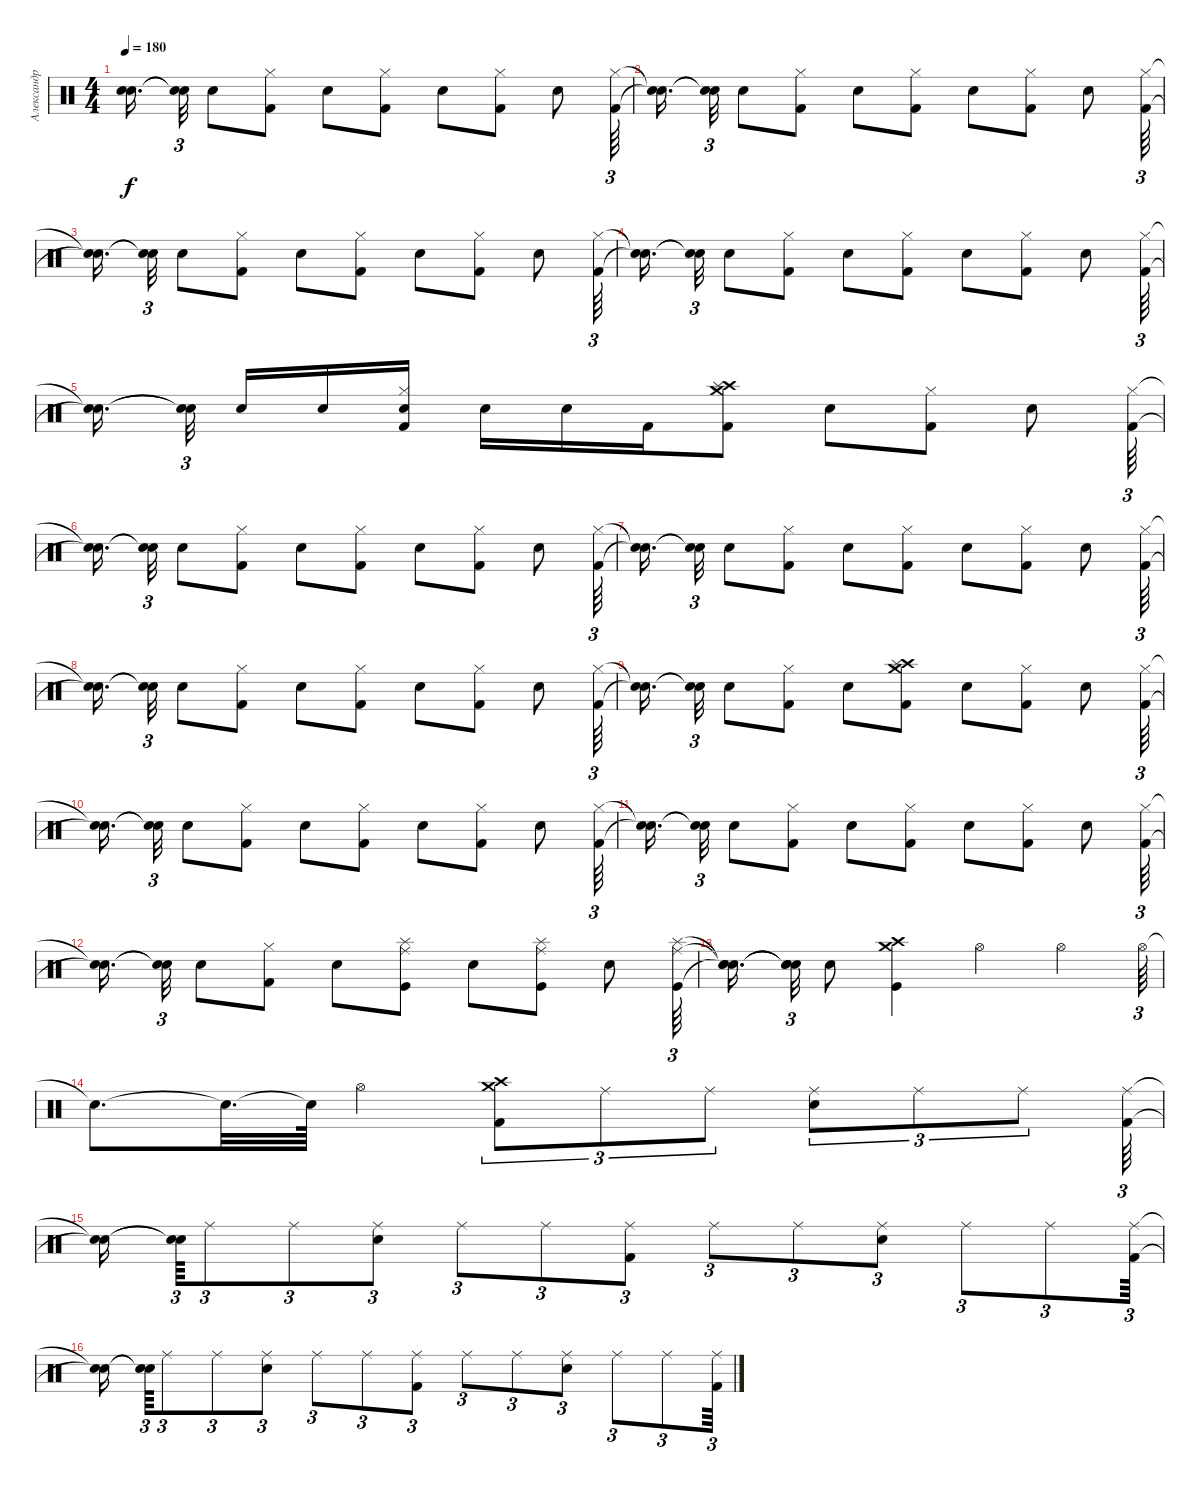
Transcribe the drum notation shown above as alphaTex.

\track ("Александр Карпухин" "Александр ") {instrument percussion}
\staff {score}
\articulation defaults
\ts (4 4)
\tempo 180
\clef neutral
\ks c
("Snare (hit)"{t} "Snare (hit)"{t}).16{d dy f beam splitsecondary} ("Snare (hit)"{t} "Snare (hit)"{t}).32{tu (3 2)} "Snare (hit) 2".8 ("Hi-Hat (closed)" "Kick (hit) 2").8 "Snare (hit) 2".8 ("Hi-Hat (closed)" "Kick (hit) 2").8 "Snare (hit) 2".8 ("Hi-Hat (closed)" "Kick (hit) 2").8 "Snare (hit) 2".8 ("Hi-Hat (closed)" "Kick (hit) 2").64{tu (3 2)} |
("Snare (hit)"{t} "Snare (hit)"{t}).16{d beam splitsecondary} ("Snare (hit)"{t} "Snare (hit)"{t}).32{tu (3 2)} "Snare (hit) 2".8 ("Hi-Hat (closed)" "Kick (hit) 2").8 "Snare (hit) 2".8 ("Hi-Hat (closed)" "Kick (hit) 2").8 "Snare (hit) 2".8 ("Hi-Hat (closed)" "Kick (hit) 2").8 "Snare (hit) 2".8 ("Hi-Hat (closed)" "Kick (hit) 2").64{tu (3 2)} |
("Snare (hit)"{t} "Snare (hit)"{t}).16{d beam splitsecondary} ("Snare (hit)"{t} "Snare (hit)"{t}).32{tu (3 2)} "Snare (hit) 2".8 ("Hi-Hat (closed)" "Kick (hit) 2").8 "Snare (hit) 2".8 ("Hi-Hat (closed)" "Kick (hit) 2").8 "Snare (hit) 2".8 ("Hi-Hat (closed)" "Kick (hit) 2").8 "Snare (hit) 2".8 ("Hi-Hat (closed)" "Kick (hit) 2").64{tu (3 2)} |
("Snare (hit)"{t} "Snare (hit)"{t}).16{d beam splitsecondary} ("Snare (hit)"{t} "Snare (hit)"{t}).32{tu (3 2)} "Snare (hit) 2".8 ("Hi-Hat (closed)" "Kick (hit) 2").8 "Snare (hit) 2".8 ("Hi-Hat (closed)" "Kick (hit) 2").8 "Snare (hit) 2".8 ("Hi-Hat (closed)" "Kick (hit) 2").8 "Snare (hit) 2".8 ("Hi-Hat (closed)" "Kick (hit) 2").64{tu (3 2)} |
("Snare (hit)"{t} "Snare (hit)"{t}).16{d beam splitsecondary} ("Snare (hit)"{t} "Snare (hit)"{t}).32{tu (3 2) beam splitsecondary} "Snare (hit) 2".16 "Snare (hit) 2".16 ("Hi-Hat (closed)" "Snare (hit) 2" "Kick (hit) 2").16 "Snare (hit) 2".16 "Snare (hit) 2".16 "Kick (hit) 2".16 ("Crash high (hit)" "Crash medium (hit)" "Splash (hit)" "Kick (hit) 2").8 "Snare (hit) 2".8 ("Hi-Hat (closed)" "Kick (hit) 2").8 "Snare (hit) 2".8 ("Hi-Hat (closed)" "Kick (hit) 2").64{tu (3 2)} |
("Snare (hit)"{t} "Snare (hit)"{t}).16{d beam splitsecondary} ("Snare (hit)"{t} "Snare (hit)"{t}).32{tu (3 2)} "Snare (hit) 2".8 ("Hi-Hat (closed)" "Kick (hit) 2").8 "Snare (hit) 2".8 ("Hi-Hat (closed)" "Kick (hit) 2").8 "Snare (hit) 2".8 ("Hi-Hat (closed)" "Kick (hit) 2").8 "Snare (hit) 2".8 ("Hi-Hat (closed)" "Kick (hit) 2").64{tu (3 2)} |
("Snare (hit)"{t} "Snare (hit)"{t}).16{d beam splitsecondary} ("Snare (hit)"{t} "Snare (hit)"{t}).32{tu (3 2)} "Snare (hit) 2".8 ("Hi-Hat (closed)" "Kick (hit) 2").8 "Snare (hit) 2".8 ("Hi-Hat (closed)" "Kick (hit) 2").8 "Snare (hit) 2".8 ("Hi-Hat (closed)" "Kick (hit) 2").8 "Snare (hit) 2".8 ("Hi-Hat (closed)" "Kick (hit) 2").64{tu (3 2)} |
("Snare (hit)"{t} "Snare (hit)"{t}).16{d beam splitsecondary} ("Snare (hit)"{t} "Snare (hit)"{t}).32{tu (3 2)} "Snare (hit) 2".8 ("Hi-Hat (closed)" "Kick (hit) 2").8 "Snare (hit) 2".8 ("Hi-Hat (closed)" "Kick (hit) 2").8 "Snare (hit) 2".8 ("Hi-Hat (closed)" "Kick (hit) 2").8 "Snare (hit) 2".8 ("Hi-Hat (closed)" "Kick (hit) 2").64{tu (3 2)} |
("Snare (hit)"{t} "Snare (hit)"{t}).16{d beam splitsecondary} ("Snare (hit)"{t} "Snare (hit)"{t}).32{tu (3 2)} "Snare (hit) 2".8 ("Hi-Hat (closed)" "Kick (hit) 2").8 "Snare (hit) 2".8 ("Crash high (hit)" "Crash medium (hit)" "Splash (hit)" "Kick (hit) 2").8 "Snare (hit) 2".8 ("Hi-Hat (closed)" "Kick (hit) 2").8 "Snare (hit) 2".8 ("Hi-Hat (closed)" "Kick (hit) 2").64{tu (3 2)} |
("Snare (hit)"{t} "Snare (hit)"{t}).16{d beam splitsecondary} ("Snare (hit)"{t} "Snare (hit)"{t}).32{tu (3 2)} "Snare (hit) 2".8 ("Hi-Hat (closed)" "Kick (hit) 2").8 "Snare (hit) 2".8 ("Hi-Hat (closed)" "Kick (hit) 2").8 "Snare (hit) 2".8 ("Hi-Hat (closed)" "Kick (hit) 2").8 "Snare (hit) 2".8 ("Hi-Hat (closed)" "Kick (hit) 2").64{tu (3 2)} |
("Snare (hit)"{t} "Snare (hit)"{t}).16{d beam splitsecondary} ("Snare (hit)"{t} "Snare (hit)"{t}).32{tu (3 2)} "Snare (hit) 2".8 ("Hi-Hat (closed)" "Kick (hit) 2").8 "Snare (hit) 2".8 ("Hi-Hat (closed)" "Kick (hit) 2").8 "Snare (hit) 2".8 ("Hi-Hat (closed)" "Kick (hit) 2").8 "Snare (hit) 2".8 ("Hi-Hat (closed)" "Kick (hit) 2").64{tu (3 2)} |
("Snare (hit)"{t} "Snare (hit)"{t}).16{d beam splitsecondary} ("Snare (hit)"{t} "Snare (hit)"{t}).32{tu (3 2)} "Snare (hit) 2".8 ("Hi-Hat (closed)" "Kick (hit) 2").8 "Snare (hit) 2".8 ("Ride (middle)" "Splash (hit)" "Kick (hit)").8 "Snare (hit) 2".8 ("Ride (middle)" "Splash (hit)" "Kick (hit)").8 "Snare (hit) 2".8 ("Ride (middle)" "Splash (hit)" "Kick (hit)").64{tu (3 2)} |
("Snare (hit)"{t} "Snare (hit)"{t} "Snare (hit)"{t}).16{d beam splitsecondary} ("Snare (hit)"{t} "Snare (hit)"{t} "Snare (hit)"{t}).32{tu (3 2)} "Snare (hit) 2".8 ("Crash medium (hit)" "Crash high (hit)" "Kick (hit)").4 "Hi-Hat (open)".4 "Hi-Hat (open)".4 "Hi-Hat (open)".64{tu (3 2)} |
"Snare (hit)"{t}.8{d} "Snare (hit)"{t}.32{d} "Snare (hit)"{t}.64 "Hi-Hat (open)".4 ("Crash high (hit)" "Crash medium (hit)" "Kick (hit) 2").8{tu (3 2)} "Ride (middle)".8{tu (3 2)} "Ride (middle)".8{tu (3 2)} ("Ride (middle)" "Snare (hit) 2").8{tu (3 2)} "Ride (middle)".8{tu (3 2)} "Ride (middle)".8{tu (3 2)} ("Ride (middle)" "Kick (hit) 2").64{tu (3 2)} |
("Snare (hit)"{t} "Snare (hit)"{t}).16{beam splitsecondary} ("Snare (hit)"{t} "Snare (hit)"{t}).64{tu (3 2)} "Ride (middle)".8{tu (3 2)} "Ride (middle)".8{tu (3 2)} ("Ride (middle)" "Snare (hit) 2").8{tu (3 2)} "Ride (middle)".8{tu (3 2)} "Ride (middle)".8{tu (3 2)} ("Ride (middle)" "Kick (hit) 2").8{tu (3 2)} "Ride (middle)".8{tu (3 2)} "Ride (middle)".8{tu (3 2)} ("Ride (middle)" "Snare (hit) 2").8{tu (3 2)} "Ride (middle)".8{tu (3 2)} "Ride (middle)".8{tu (3 2)} ("Ride (middle)" "Kick (hit) 2").64{tu (3 2)} |
("Snare (hit)"{t} "Snare (hit)"{t}).16{beam splitsecondary} ("Snare (hit)"{t} "Snare (hit)"{t}).64{tu (3 2)} "Ride (middle)".8{tu (3 2)} "Ride (middle)".8{tu (3 2)} ("Ride (middle)" "Snare (hit) 2").8{tu (3 2)} "Ride (middle)".8{tu (3 2)} "Ride (middle)".8{tu (3 2)} ("Ride (middle)" "Kick (hit) 2").8{tu (3 2)} "Ride (middle)".8{tu (3 2)} "Ride (middle)".8{tu (3 2)} ("Ride (middle)" "Snare (hit) 2").8{tu (3 2)} "Ride (middle)".8{tu (3 2)} "Ride (middle)".8{tu (3 2)} ("Ride (middle)" "Kick (hit) 2").64{tu (3 2)}
